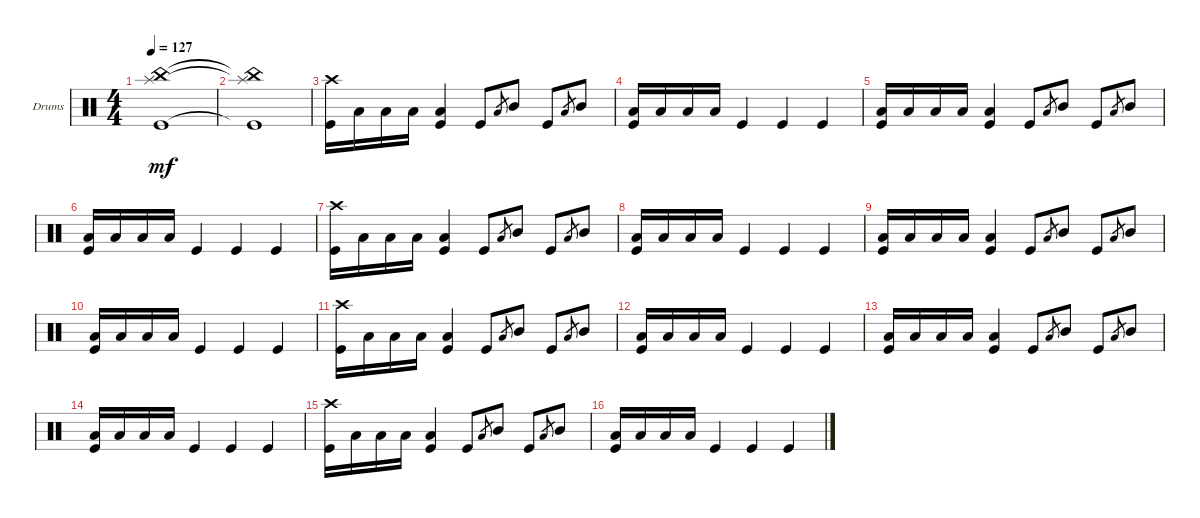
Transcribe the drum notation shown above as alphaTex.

\defaultSystemsLayout 4
\bracketExtendMode groupsimilarinstruments
\firstSystemTrackNameOrientation horizontal
\otherSystemsTrackNameOrientation horizontal
\track ("Drumkit" "Drums") {instrument percussion}
\staff {score}
\articulation defaults
\ts (4 4)
\tempo 127
\clef neutral
\scale
0.333333
\ks c
("Kick (hit)"{t} "Splash (hit)"{t} "China (hit)"{t}).1{dy mf} |
\scale
0.333333 ("Kick (hit)"{t} "Splash (hit)"{t} "China (hit)"{t}).1 |
\scale
0.333333 ("Kick (hit)" "Crash high (hit)").16 "Low Tom (hit)".16 "Low Tom (hit)".16 "Low Tom (hit)".16 ("Low Tom (hit)" "Kick (hit)").4 "Kick (hit)".8 "Low Tom (hit)".8{gr} "Mid Tom (hit)".8 "Kick (hit)".8 "Low Tom (hit)".8{gr} "Mid Tom (hit)".8 |
\scale
0.333333 ("Kick (hit)" "Low Tom (hit)").16 "Low Tom (hit)".16 "Low Tom (hit)".16 "Low Tom (hit)".16 "Kick (hit)".4 "Kick (hit)".4 "Kick (hit)".4 |
\scale
0.333333 ("Kick (hit)" "Low Tom (hit)").16 "Low Tom (hit)".16 "Low Tom (hit)".16 "Low Tom (hit)".16 ("Low Tom (hit)" "Kick (hit)").4 "Kick (hit)".8 "Low Tom (hit)".8{gr} "Mid Tom (hit)".8 "Kick (hit)".8 "Low Tom (hit)".8{gr} "Mid Tom (hit)".8 |
\scale
0.333333 ("Kick (hit)" "Low Tom (hit)").16 "Low Tom (hit)".16 "Low Tom (hit)".16 "Low Tom (hit)".16 "Kick (hit)".4 "Kick (hit)".4 "Kick (hit)".4 |
\scale
0.333333 ("Kick (hit)" "Crash high (hit)").16 "Low Tom (hit)".16 "Low Tom (hit)".16 "Low Tom (hit)".16 ("Low Tom (hit)" "Kick (hit)").4 "Kick (hit)".8 "Low Tom (hit)".8{gr} "Mid Tom (hit)".8 "Kick (hit)".8 "Low Tom (hit)".8{gr} "Mid Tom (hit)".8 |
\scale
0.333333 ("Kick (hit)" "Low Tom (hit)").16 "Low Tom (hit)".16 "Low Tom (hit)".16 "Low Tom (hit)".16 "Kick (hit)".4 "Kick (hit)".4 "Kick (hit)".4 |
\scale
0.333333 ("Kick (hit)" "Low Tom (hit)").16 "Low Tom (hit)".16 "Low Tom (hit)".16 "Low Tom (hit)".16 ("Low Tom (hit)" "Kick (hit)").4 "Kick (hit)".8 "Low Tom (hit)".8{gr} "Mid Tom (hit)".8 "Kick (hit)".8 "Low Tom (hit)".8{gr} "Mid Tom (hit)".8 |
\scale
0.333333 ("Kick (hit)" "Low Tom (hit)").16 "Low Tom (hit)".16 "Low Tom (hit)".16 "Low Tom (hit)".16 "Kick (hit)".4 "Kick (hit)".4 "Kick (hit)".4 |
\scale
0.333333 ("Kick (hit)" "Crash high (hit)").16 "Low Tom (hit)".16 "Low Tom (hit)".16 "Low Tom (hit)".16 ("Low Tom (hit)" "Kick (hit)").4 "Kick (hit)".8 "Low Tom (hit)".8{gr} "Mid Tom (hit)".8 "Kick (hit)".8 "Low Tom (hit)".8{gr} "Mid Tom (hit)".8 |
("Kick (hit)" "Low Tom (hit)").16 "Low Tom (hit)".16 "Low Tom (hit)".16 "Low Tom (hit)".16 "Kick (hit)".4 "Kick (hit)".4 "Kick (hit)".4 |
("Kick (hit)" "Low Tom (hit)").16 "Low Tom (hit)".16 "Low Tom (hit)".16 "Low Tom (hit)".16 ("Low Tom (hit)" "Kick (hit)").4 "Kick (hit)".8 "Low Tom (hit)".8{gr} "Mid Tom (hit)".8 "Kick (hit)".8 "Low Tom (hit)".8{gr} "Mid Tom (hit)".8 |
("Kick (hit)" "Low Tom (hit)").16 "Low Tom (hit)".16 "Low Tom (hit)".16 "Low Tom (hit)".16 "Kick (hit)".4 "Kick (hit)".4 "Kick (hit)".4 |
("Kick (hit)" "Crash high (hit)").16 "Low Tom (hit)".16 "Low Tom (hit)".16 "Low Tom (hit)".16 ("Low Tom (hit)" "Kick (hit)").4 "Kick (hit)".8 "Low Tom (hit)".8{gr} "Mid Tom (hit)".8 "Kick (hit)".8 "Low Tom (hit)".8{gr} "Mid Tom (hit)".8 |
("Kick (hit)" "Low Tom (hit)").16 "Low Tom (hit)".16 "Low Tom (hit)".16 "Low Tom (hit)".16 "Kick (hit)".4 "Kick (hit)".4 "Kick (hit)".4
